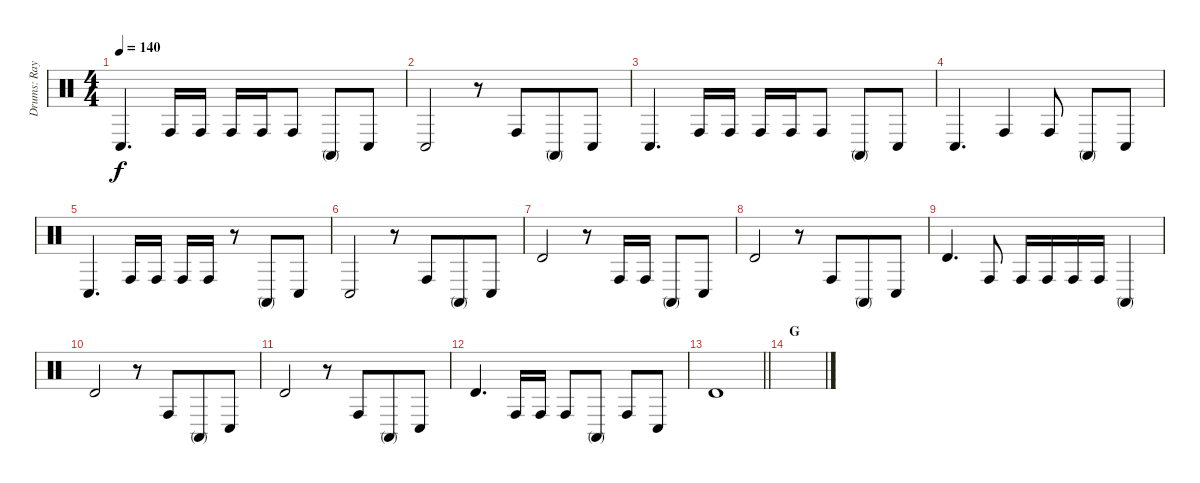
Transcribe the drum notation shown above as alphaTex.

\track ("Drums: Ray Cooper" "Drums: Ray") {instrument percussion}
\staff {score}
\articulation defaults
\ts (4 4)
\tempo 140
\clef neutral
\ks c "Conga low (hit)".4{d dy f} "Conga high (hit)".16 "Conga high (hit)".16 "Conga high (hit)".16 "Conga high (hit)".16 "Conga high (hit)".8 "Conga high (mute)".8 "Conga low (hit)".8
|
"Conga low (hit)".2 r.8 "Conga high (hit)".8{beam merge} "Conga high (mute)".8 "Conga low (hit)".8 |
"Conga low (hit)".4{d} "Conga high (hit)".16 "Conga high (hit)".16 "Conga high (hit)".16 "Conga high (hit)".16 "Conga high (hit)".8 "Conga high (mute)".8 "Conga low (hit)".8 |
"Conga low (hit)".4{d} "Conga high (hit)".4 "Conga high (hit)".8 "Conga high (mute)".8 "Conga low (hit)".8 |
"Conga low (hit)".4{d} "Conga high (hit)".16 "Conga high (hit)".16 "Conga high (hit)".16 "Conga high (hit)".16 r.8 "Conga high (mute)".8 "Conga low (hit)".8 |
"Conga low (hit)".2 r.8 "Conga high (hit)".8{beam merge} "Conga high (mute)".8 "Conga low (hit)".8 |
"Timbale high (hit)".2 r.8 "Conga high (hit)".16 "Conga high (hit)".16 "Conga high (mute)".8 "Conga low (hit)".8 |
"Timbale high (hit)".2 r.8 "Conga high (hit)".8{beam merge} "Conga high (mute)".8 "Conga low (hit)".8 |
"Timbale high (hit)".4{d} "Conga high (hit)".8 "Conga high (hit)".16 "Conga high (hit)".16 "Conga high (hit)".16 "Conga high (hit)".16 "Conga high (mute)".4 |
"Timbale high (hit)".2 r.8 "Conga high (hit)".8{beam merge} "Conga high (mute)".8 "Conga low (hit)".8 |
"Timbale high (hit)".2 r.8 "Conga high (hit)".8{beam merge} "Conga high (mute)".8 "Conga low (hit)".8 |
"Timbale high (hit)".4{d} "Conga high (hit)".16 "Conga high (hit)".16 "Conga high (hit)".8 "Conga high (mute)".8 "Conga high (hit)".8 "Conga low (hit)".8 |
\barLineRight lightlight "Timbale high (hit)".1
|
\section ("" "G")
